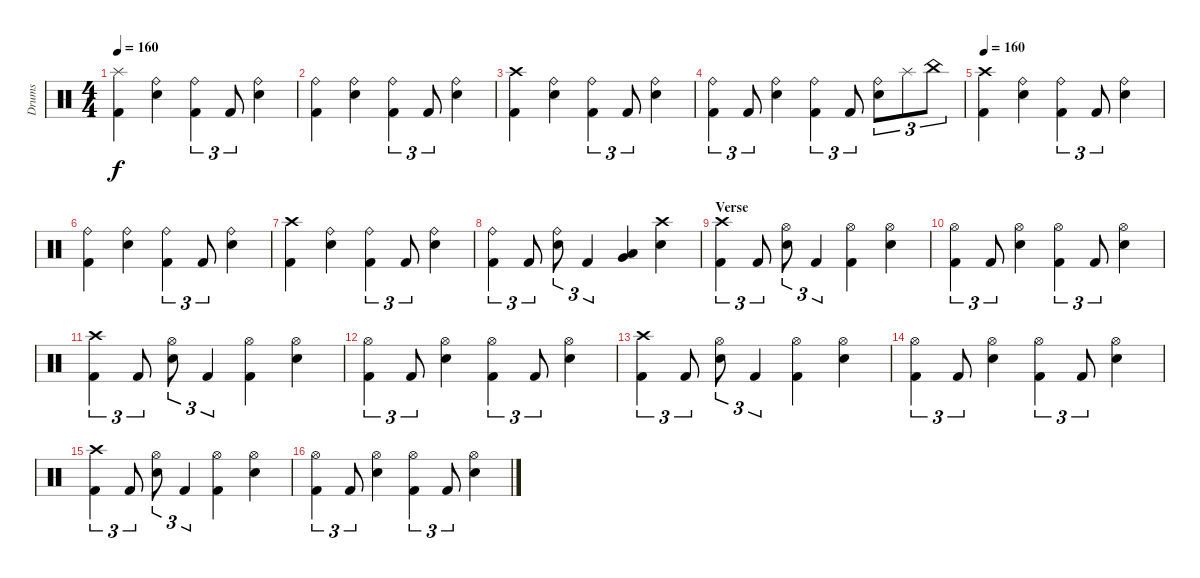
\track ("Drums" "Drums") {instrument percussion}
\staff {score}
\articulation defaults
\ts (4 4)
\tempo 160
\clef neutral
\ks c
("Splash (hit)" "Kick (hit) 2").4{dy f} ("Ride (bell)" "Snare (hit) 2").4 ("Ride (bell)" "Kick (hit) 2").4{tu (3 2)} "Kick (hit) 2".8{tu (3 2)} ("Ride (bell)" "Snare (hit) 2").4 |
("Ride (bell)" "Kick (hit) 2").4 ("Ride (bell)" "Snare (hit) 2").4 ("Ride (bell)" "Kick (hit) 2").4{tu (3 2)} "Kick (hit) 2".8{tu (3 2)} ("Ride (bell)" "Snare (hit) 2").4 |
("Crash high (hit)" "Kick (hit) 2").4 ("Ride (bell)" "Snare (hit) 2").4 ("Ride (bell)" "Kick (hit) 2").4{tu (3 2)} "Kick (hit) 2".8{tu (3 2)} ("Ride (bell)" "Snare (hit) 2").4 |
("Ride (bell)" "Kick (hit) 2").4{tu (3 2)} "Kick (hit) 2".8{tu (3 2)} ("Ride (bell)" "Snare (hit) 2").4 ("Ride (bell)" "Kick (hit) 2").4{tu (3 2)} "Kick (hit) 2".8{tu (3 2)} ("Ride (bell)" "Snare (hit) 2").8{tu (3 2)} "Splash (hit)".8{tu (3 2)} "China (hit)".8{tu (3 2)} |
\tempo 160
("Crash high (hit)" "Kick (hit) 2").4 ("Ride (bell)" "Snare (hit) 2").4 ("Ride (bell)" "Kick (hit) 2").4{tu (3 2)} "Kick (hit) 2".8{tu (3 2)} ("Ride (bell)" "Snare (hit) 2").4 |
("Ride (bell)" "Kick (hit) 2").4 ("Ride (bell)" "Snare (hit) 2").4 ("Ride (bell)" "Kick (hit) 2").4{tu (3 2)} "Kick (hit) 2".8{tu (3 2)} ("Ride (bell)" "Snare (hit) 2").4 |
("Crash high (hit)" "Kick (hit) 2").4 ("Ride (bell)" "Snare (hit) 2").4 ("Ride (bell)" "Kick (hit) 2").4{tu (3 2)} "Kick (hit) 2".8{tu (3 2)} ("Ride (bell)" "Snare (hit) 2").4 |
("Ride (bell)" "Kick (hit) 2").4{tu (3 2)} "Kick (hit) 2".8{tu (3 2)} ("Ride (bell)" "Snare (hit) 2").8{tu (3 2)} "Kick (hit) 2".4{tu (3 2)} ("Very Low Tom (hit)" "Low Floor Tom (hit)").4 ("Crash high (hit)" "Snare (hit) 2").4 |
\section ("" "Verse")
("Crash high (hit)" "Kick (hit) 2").4{tu (3 2)} "Kick (hit) 2".8{tu (3 2)} ("Hi-Hat (open)" "Snare (hit) 2").8{tu (3 2)} "Kick (hit) 2".4{tu (3 2)} ("Hi-Hat (open)" "Kick (hit) 2").4 ("Hi-Hat (open)" "Snare (hit) 2").4 |
("Hi-Hat (open)" "Kick (hit) 2").4{tu (3 2)} "Kick (hit) 2".8{tu (3 2)} ("Hi-Hat (open)" "Snare (hit) 2").4 ("Hi-Hat (open)" "Kick (hit) 2").4{tu (3 2)} "Kick (hit) 2".8{tu (3 2)} ("Hi-Hat (open)" "Snare (hit) 2").4 |
("Crash high (hit)" "Kick (hit) 2").4{tu (3 2)} "Kick (hit) 2".8{tu (3 2)} ("Hi-Hat (open)" "Snare (hit) 2").8{tu (3 2)} "Kick (hit) 2".4{tu (3 2)} ("Hi-Hat (open)" "Kick (hit) 2").4 ("Hi-Hat (open)" "Snare (hit) 2").4 |
("Hi-Hat (open)" "Kick (hit) 2").4{tu (3 2)} "Kick (hit) 2".8{tu (3 2)} ("Hi-Hat (open)" "Snare (hit) 2").4 ("Hi-Hat (open)" "Kick (hit) 2").4{tu (3 2)} "Kick (hit) 2".8{tu (3 2)} ("Hi-Hat (open)" "Snare (hit) 2").4 |
("Crash high (hit)" "Kick (hit) 2").4{tu (3 2)} "Kick (hit) 2".8{tu (3 2)} ("Hi-Hat (open)" "Snare (hit) 2").8{tu (3 2)} "Kick (hit) 2".4{tu (3 2)} ("Hi-Hat (open)" "Kick (hit) 2").4 ("Hi-Hat (open)" "Snare (hit) 2").4 |
("Hi-Hat (open)" "Kick (hit) 2").4{tu (3 2)} "Kick (hit) 2".8{tu (3 2)} ("Hi-Hat (open)" "Snare (hit) 2").4 ("Hi-Hat (open)" "Kick (hit) 2").4{tu (3 2)} "Kick (hit) 2".8{tu (3 2)} ("Hi-Hat (open)" "Snare (hit) 2").4 |
("Crash high (hit)" "Kick (hit) 2").4{tu (3 2)} "Kick (hit) 2".8{tu (3 2)} ("Hi-Hat (open)" "Snare (hit) 2").8{tu (3 2)} "Kick (hit) 2".4{tu (3 2)} ("Hi-Hat (open)" "Kick (hit) 2").4 ("Hi-Hat (open)" "Snare (hit) 2").4 |
("Hi-Hat (open)" "Kick (hit) 2").4{tu (3 2)} "Kick (hit) 2".8{tu (3 2)} ("Hi-Hat (open)" "Snare (hit) 2").4 ("Hi-Hat (open)" "Kick (hit) 2").4{tu (3 2)} "Kick (hit) 2".8{tu (3 2)} ("Hi-Hat (open)" "Snare (hit) 2").4
